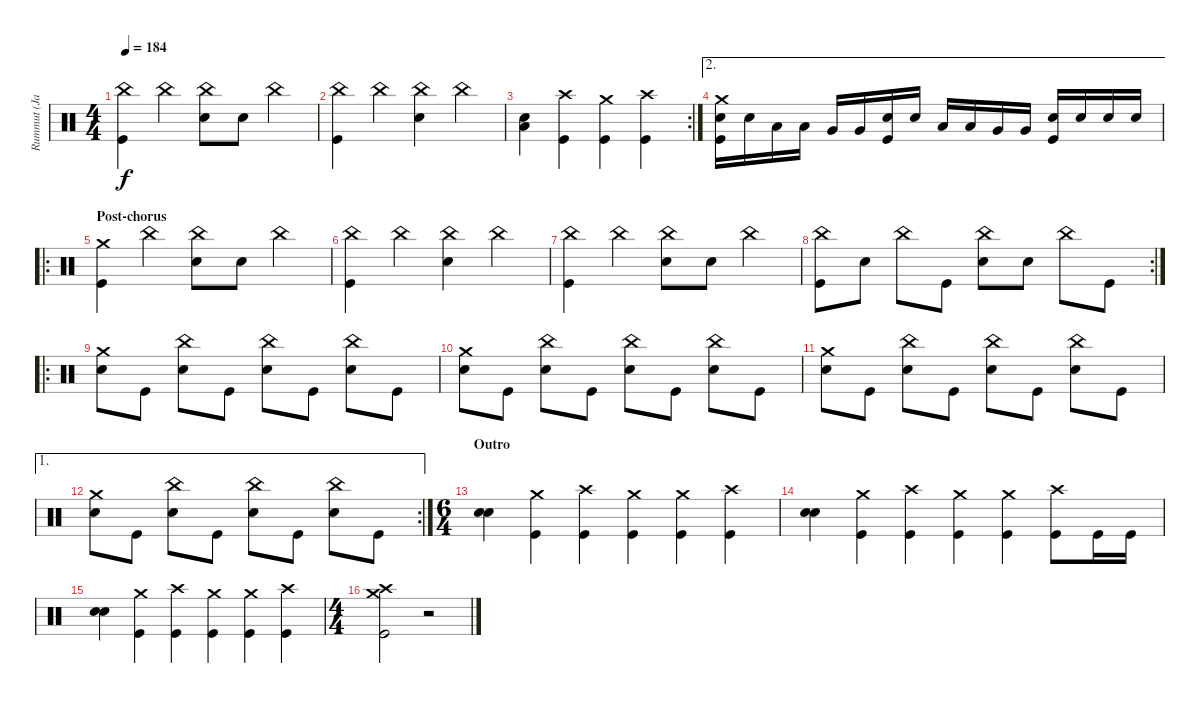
\track ("Rummut (Janne)" "Rummut (Ja") {instrument percussion}
\staff {score}
\articulation defaults
\ts (4 4)
\tempo 184
\clef neutral
\ks c
("China (hit)" "Kick (hit)").4{dy f} "China (hit)".4 ("China (hit)" "Snare (hit) 2").8 "Snare (hit) 2".8 "China (hit)".4 |
("China (hit)" "Kick (hit)").4 "China (hit)".4 ("China (hit)" "Snare (hit) 2").4 "China (hit)".4 |
\rc 2
("Low Tom (hit)" "Snare (hit) 2").4 ("Crash high (hit)" "Kick (hit)").4 ("Crash medium (hit)" "Kick (hit)").4 ("Crash high (hit)" "Kick (hit)").4 |
\ae 2
("Crash medium (hit)" "Snare (hit) 2" "Kick (hit)").16 "Snare (hit) 2".16 "Low Tom (hit)".16 "Low Tom (hit)".16 "Very Low Tom (hit)".16 "Very Low Tom (hit)".16 ("Snare (hit) 2" "Kick (hit)").16 "Snare (hit) 2".16 "Low Tom (hit)".16 "Low Tom (hit)".16 "Very Low Tom (hit)".16 "Very Low Tom (hit)".16 ("Snare (hit) 2" "Kick (hit)").16 "Snare (hit) 2".16 "Snare (hit) 2".16 "Snare (hit) 2".16 |
\ro
\section ("" "Post-chorus")
("Crash medium (hit)" "Kick (hit)").4 "China (hit)".4 ("China (hit)" "Snare (hit) 2").8 "Snare (hit) 2".8 "China (hit)".4 |
("China (hit)" "Kick (hit)").4 "China (hit)".4 ("China (hit)" "Snare (hit) 2").4 "China (hit)".4 |
("China (hit)" "Kick (hit)").4 "China (hit)".4 ("China (hit)" "Snare (hit) 2").8 "Snare (hit) 2".8 "China (hit)".4 |
\rc 2
("China (hit)" "Kick (hit)").8 "Snare (hit) 2".8 "China (hit)".8 "Kick (hit)".8 ("China (hit)" "Snare (hit) 2").8 "Snare (hit) 2".8 "China (hit)".8 "Kick (hit)".8 |
\ro
("Crash medium (hit)" "Snare (hit) 2").8 "Kick (hit)".8 ("China (hit)" "Snare (hit) 2").8 "Kick (hit)".8 ("China (hit)" "Snare (hit) 2").8 "Kick (hit)".8 ("China (hit)" "Snare (hit) 2").8 "Kick (hit)".8 |
("Crash medium (hit)" "Snare (hit) 2").8 "Kick (hit)".8 ("China (hit)" "Snare (hit) 2").8 "Kick (hit)".8 ("China (hit)" "Snare (hit) 2").8 "Kick (hit)".8 ("China (hit)" "Snare (hit) 2").8 "Kick (hit)".8 |
("Crash medium (hit)" "Snare (hit) 2").8 "Kick (hit)".8 ("China (hit)" "Snare (hit) 2").8 "Kick (hit)".8 ("China (hit)" "Snare (hit) 2").8 "Kick (hit)".8 ("China (hit)" "Snare (hit) 2").8 "Kick (hit)".8 |
\ae 1
\rc 2
("Crash medium (hit)" "Snare (hit) 2").8 "Kick (hit)".8 ("China (hit)" "Snare (hit) 2").8 "Kick (hit)".8 ("China (hit)" "Snare (hit) 2").8 "Kick (hit)".8 ("China (hit)" "Snare (hit) 2").8 "Kick (hit)".8 |
\ts (6 4)
\section ("" "Outro")
("Snare (hit) 2" "Snare (hit) 2").4 ("Crash medium (hit)" "Kick (hit)").4 ("Crash high (hit)" "Kick (hit)").4 ("Crash medium (hit)" "Kick (hit)").4 ("Crash medium (hit)" "Kick (hit)").4 ("Crash high (hit)" "Kick (hit)").4 |
("Snare (hit) 2" "Snare (hit) 2").4 ("Crash medium (hit)" "Kick (hit)").4 ("Crash high (hit)" "Kick (hit)").4 ("Crash medium (hit)" "Kick (hit)").4 ("Crash medium (hit)" "Kick (hit)").4 ("Crash high (hit)" "Kick (hit)").8 "Kick (hit)".16 "Kick (hit)".16 |
("Snare (hit) 2" "Snare (hit) 2").4 ("Crash medium (hit)" "Kick (hit)").4 ("Crash high (hit)" "Kick (hit)").4 ("Crash medium (hit)" "Kick (hit)").4 ("Crash medium (hit)" "Kick (hit)").4 ("Crash high (hit)" "Kick (hit)").4 |
\ts (4 4)
("Crash medium (hit)" "Crash high (hit)" "Kick (hit)").2 r.2
